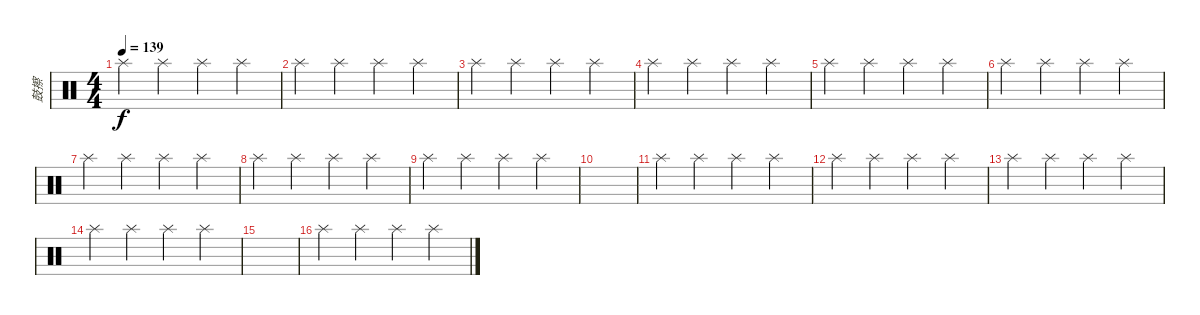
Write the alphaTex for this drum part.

\track ("鼓擦" "鼓擦") {instrument percussion}
\staff {score}
\articulation defaults
\ts (4 4)
\tempo 139
\clef neutral
\ks c "Splash (hit)".4{dy f} "Splash (hit)".4 "Splash (hit)".4 "Splash (hit)".4
|
"Splash (hit)".4 "Splash (hit)".4 "Splash (hit)".4 "Splash (hit)".4 |
"Splash (hit)".4 "Splash (hit)".4 "Splash (hit)".4 "Splash (hit)".4 |
"Splash (hit)".4 "Splash (hit)".4 "Splash (hit)".4 "Splash (hit)".4 |
"Splash (hit)".4 "Splash (hit)".4 "Splash (hit)".4 "Splash (hit)".4 |
"Splash (hit)".4 "Splash (hit)".4 "Splash (hit)".4 "Splash (hit)".4 |
"Splash (hit)".4 "Splash (hit)".4 "Splash (hit)".4 "Splash (hit)".4 |
"Splash (hit)".4 "Splash (hit)".4 "Splash (hit)".4 "Splash (hit)".4 |
"Splash (hit)".4 "Splash (hit)".4 "Splash (hit)".4 "Splash (hit)".4 |
|
"Splash (hit)".4 "Splash (hit)".4 "Splash (hit)".4 "Splash (hit)".4 |
"Splash (hit)".4 "Splash (hit)".4 "Splash (hit)".4 "Splash (hit)".4 |
"Splash (hit)".4 "Splash (hit)".4 "Splash (hit)".4 "Splash (hit)".4 |
"Splash (hit)".4 "Splash (hit)".4 "Splash (hit)".4 "Splash (hit)".4 |
|
"Splash (hit)".4 "Splash (hit)".4 "Splash (hit)".4 "Splash (hit)".4
